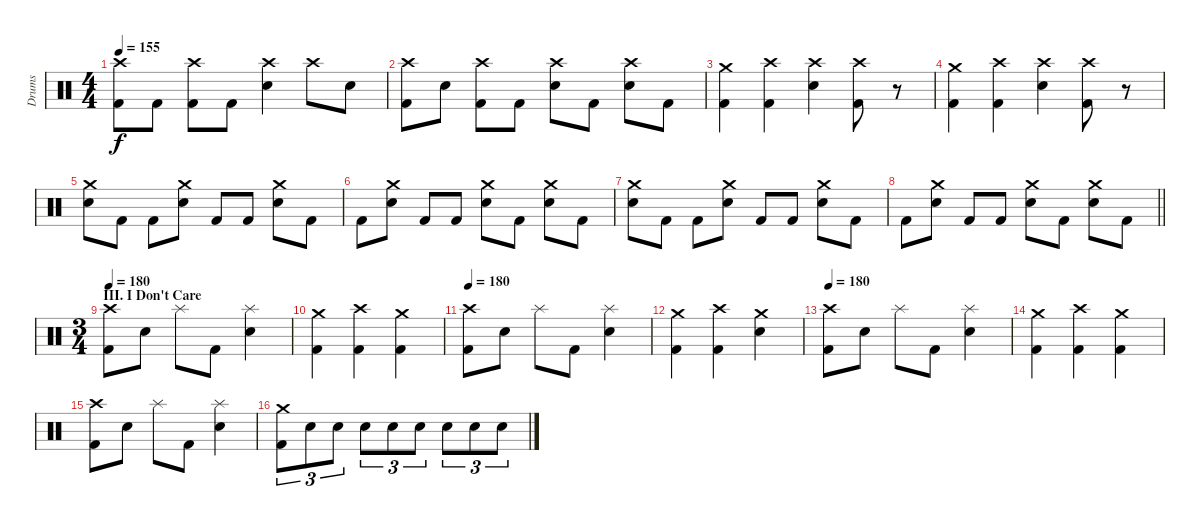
\track ("Drums" "Drums") {instrument percussion}
\staff {score}
\articulation defaults
\ts (4 4)
\tempo 155
\clef neutral
\ks c
("Crash high (hit)" "Kick (hit) 2").8{dy f} "Kick (hit) 2".8 ("Crash high (hit)" "Kick (hit) 2").8 "Kick (hit) 2".8 ("Crash high (hit)" "Snare (hit) 2").4 "Crash high (hit)".8 "Snare (hit) 2".8 |
("Crash high (hit)" "Kick (hit) 2").8 "Snare (hit) 2".8 ("Crash high (hit)" "Kick (hit) 2").8 "Kick (hit) 2".8 ("Crash high (hit)" "Snare (hit) 2").8 "Kick (hit) 2".8 ("Crash high (hit)" "Snare (hit) 2").8 "Kick (hit) 2".8 |
("Crash medium (hit)" "Kick (hit) 2").4 ("Crash high (hit)" "Kick (hit) 2").4 ("Crash high (hit)" "Snare (hit) 2").4 ("Crash high (hit)" "Kick (hit) 2").8 r.8 |
("Crash medium (hit)" "Kick (hit) 2").4 ("Crash high (hit)" "Kick (hit) 2").4 ("Crash high (hit)" "Snare (hit) 2").4 ("Crash high (hit)" "Kick (hit) 2").8 r.8 |
("Crash medium (hit)" "Snare (hit) 2").8 "Kick (hit) 2".8 "Kick (hit) 2".8 ("Crash medium (hit)" "Snare (hit) 2").8 "Kick (hit) 2".8 "Kick (hit) 2".8 ("Crash medium (hit)" "Snare (hit) 2").8 "Kick (hit) 2".8 |
"Kick (hit) 2".8 ("Crash medium (hit)" "Snare (hit) 2").8 "Kick (hit) 2".8 "Kick (hit) 2".8 ("Crash medium (hit)" "Snare (hit) 2").8 "Kick (hit) 2".8 ("Crash medium (hit)" "Snare (hit) 2").8 "Kick (hit) 2".8 |
("Crash medium (hit)" "Snare (hit) 2").8 "Kick (hit) 2".8 "Kick (hit) 2".8 ("Crash medium (hit)" "Snare (hit) 2").8 "Kick (hit) 2".8 "Kick (hit) 2".8 ("Crash medium (hit)" "Snare (hit) 2").8 "Kick (hit) 2".8 |
\barLineRight lightlight "Kick (hit) 2".8
("Crash medium (hit)" "Snare (hit) 2").8 "Kick (hit) 2".8 "Kick (hit) 2".8 ("Crash medium (hit)" "Snare (hit) 2").8 "Kick (hit) 2".8 ("Crash medium (hit)" "Snare (hit) 2").8 "Kick (hit) 2".8 |
\ts (3 4)
\section ("" "III. I Don't Care")
\tempo 180
("Crash high (hit)" "Kick (hit) 2").8 "Snare (hit) 2".8 "Splash (hit)".8 "Kick (hit) 2".8 ("Splash (hit)" "Snare (hit) 2").4 |
("Crash medium (hit)" "Kick (hit) 2").4 ("Crash high (hit)" "Kick (hit) 2").4 ("Crash medium (hit)" "Kick (hit) 2").4 |
\tempo 180
("Crash high (hit)" "Kick (hit) 2").8 "Snare (hit) 2".8 "Splash (hit)".8 "Kick (hit) 2".8 ("Splash (hit)" "Snare (hit) 2").4 |
("Crash medium (hit)" "Kick (hit) 2").4 ("Crash high (hit)" "Kick (hit) 2").4 ("Crash medium (hit)" "Snare (hit) 2").4 |
\tempo 180
("Crash high (hit)" "Kick (hit) 2").8 "Snare (hit) 2".8 "Splash (hit)".8 "Kick (hit) 2".8 ("Splash (hit)" "Snare (hit) 2").4 |
("Crash medium (hit)" "Kick (hit) 2").4 ("Crash high (hit)" "Kick (hit) 2").4 ("Crash medium (hit)" "Kick (hit) 2").4 |
("Crash high (hit)" "Kick (hit) 2").8 "Snare (hit) 2".8 "Splash (hit)".8 "Kick (hit) 2".8 ("Splash (hit)" "Snare (hit) 2").4 |
("Crash medium (hit)" "Kick (hit) 2").8{tu (3 2)} "Snare (hit) 2".8{tu (3 2)} "Snare (hit) 2".8{tu (3 2)} "Snare (hit) 2".8{tu (3 2)} "Snare (hit) 2".8{tu (3 2)} "Snare (hit) 2".8{tu (3 2)} "Snare (hit) 2".8{tu (3 2)} "Snare (hit) 2".8{tu (3 2)} "Snare (hit) 2".8{tu (3 2)}
